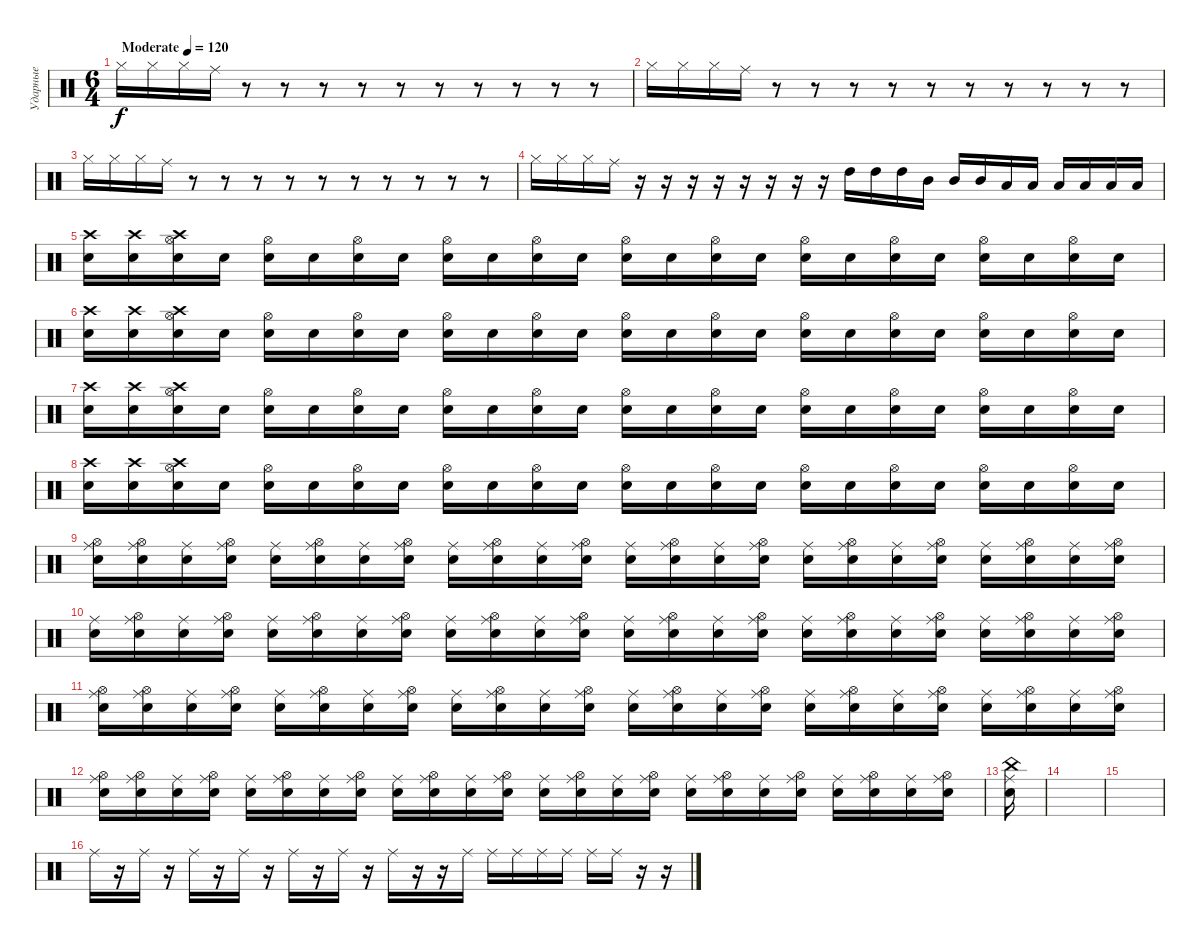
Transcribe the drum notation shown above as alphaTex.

\track ("Ударные" "Ударные") {instrument percussion}
\staff {score}
\articulation defaults
\ts (6 4)
\tempo (120 "Moderate")
\clef neutral
\ks c "Hi-Hat (closed)".16{dy f} "Hi-Hat (closed)".16 "Hi-Hat (closed)".16 "Ride (middle)".16
r.8 r.8 r.8 r.8 r.8 r.8 r.8 r.8 r.8 r.8 |
"Hi-Hat (closed)".16 "Hi-Hat (closed)".16 "Hi-Hat (closed)".16 "Ride (middle)".16 r.8 r.8 r.8 r.8 r.8 r.8 r.8 r.8 r.8 r.8 |
"Hi-Hat (closed)".16 "Hi-Hat (closed)".16 "Hi-Hat (closed)".16 "Ride (middle)".16 r.8 r.8 r.8 r.8 r.8 r.8 r.8 r.8 r.8 r.8 |
"Hi-Hat (closed)".16 "Hi-Hat (closed)".16 "Hi-Hat (closed)".16 "Ride (middle)".16 r.16 r.16 r.16 r.16 r.16 r.16 r.16 r.16 "High Tom (hit)".16 "High Tom (hit)".16 "High Tom (hit)".16 "Mid Tom (hit)".16 "Mid Tom (hit)".16 "Mid Tom (hit)".16 "Low Tom (hit)".16 "Low Tom (hit)".16 "Low Tom (hit)".16 "Low Floor Tom (hit)".16 "Low Floor Tom (hit)".16 "Low Floor Tom (hit)".16 |
("Crash high (hit)" "Snare (hit) 2").16 ("Crash high (hit)" "Snare (hit) 2").16 ("Crash high (hit)" "Snare (hit) 2" "Hi-Hat (open)").16 "Electric Snare (hit)".16 ("Electric Snare (hit)" "Hi-Hat (open)").16 "Electric Snare (hit)".16 ("Electric Snare (hit)" "Hi-Hat (open)").16 "Electric Snare (hit)".16 ("Electric Snare (hit)" "Hi-Hat (open)").16 "Electric Snare (hit)".16 ("Electric Snare (hit)" "Hi-Hat (open)").16 "Electric Snare (hit)".16 ("Electric Snare (hit)" "Hi-Hat (open)").16 "Electric Snare (hit)".16 ("Electric Snare (hit)" "Hi-Hat (open)").16 "Electric Snare (hit)".16 ("Electric Snare (hit)" "Hi-Hat (open)").16 "Electric Snare (hit)".16 ("Electric Snare (hit)" "Hi-Hat (open)").16 "Electric Snare (hit)".16 ("Electric Snare (hit)" "Hi-Hat (open)").16 "Electric Snare (hit)".16 ("Electric Snare (hit)" "Hi-Hat (open)").16 "Electric Snare (hit)".16 |
("Crash high (hit)" "Snare (hit) 2").16 ("Crash high (hit)" "Snare (hit) 2").16 ("Crash high (hit)" "Snare (hit) 2" "Hi-Hat (open)").16 "Electric Snare (hit)".16 ("Electric Snare (hit)" "Hi-Hat (open)").16 "Electric Snare (hit)".16 ("Electric Snare (hit)" "Hi-Hat (open)").16 "Electric Snare (hit)".16 ("Electric Snare (hit)" "Hi-Hat (open)").16 "Electric Snare (hit)".16 ("Electric Snare (hit)" "Hi-Hat (open)").16 "Electric Snare (hit)".16 ("Electric Snare (hit)" "Hi-Hat (open)").16 "Electric Snare (hit)".16 ("Electric Snare (hit)" "Hi-Hat (open)").16 "Electric Snare (hit)".16 ("Electric Snare (hit)" "Hi-Hat (open)").16 "Electric Snare (hit)".16 ("Electric Snare (hit)" "Hi-Hat (open)").16 "Electric Snare (hit)".16 ("Electric Snare (hit)" "Hi-Hat (open)").16 "Electric Snare (hit)".16 ("Electric Snare (hit)" "Hi-Hat (open)").16 "Electric Snare (hit)".16 |
("Crash high (hit)" "Snare (hit) 2").16 ("Crash high (hit)" "Snare (hit) 2").16 ("Crash high (hit)" "Snare (hit) 2" "Hi-Hat (open)").16 "Electric Snare (hit)".16 ("Electric Snare (hit)" "Hi-Hat (open)").16 "Electric Snare (hit)".16 ("Electric Snare (hit)" "Hi-Hat (open)").16 "Electric Snare (hit)".16 ("Electric Snare (hit)" "Hi-Hat (open)").16 "Electric Snare (hit)".16 ("Electric Snare (hit)" "Hi-Hat (open)").16 "Electric Snare (hit)".16 ("Electric Snare (hit)" "Hi-Hat (open)").16 "Electric Snare (hit)".16 ("Electric Snare (hit)" "Hi-Hat (open)").16 "Electric Snare (hit)".16 ("Electric Snare (hit)" "Hi-Hat (open)").16 "Electric Snare (hit)".16 ("Electric Snare (hit)" "Hi-Hat (open)").16 "Electric Snare (hit)".16 ("Electric Snare (hit)" "Hi-Hat (open)").16 "Electric Snare (hit)".16 ("Electric Snare (hit)" "Hi-Hat (open)").16 "Electric Snare (hit)".16 |
("Crash high (hit)" "Snare (hit) 2").16 ("Crash high (hit)" "Snare (hit) 2").16 ("Crash high (hit)" "Snare (hit) 2" "Hi-Hat (open)").16 "Electric Snare (hit)".16 ("Electric Snare (hit)" "Hi-Hat (open)").16 "Electric Snare (hit)".16 ("Electric Snare (hit)" "Hi-Hat (open)").16 "Electric Snare (hit)".16 ("Electric Snare (hit)" "Hi-Hat (open)").16 "Electric Snare (hit)".16 ("Electric Snare (hit)" "Hi-Hat (open)").16 "Electric Snare (hit)".16 ("Electric Snare (hit)" "Hi-Hat (open)").16 "Electric Snare (hit)".16 ("Electric Snare (hit)" "Hi-Hat (open)").16 "Electric Snare (hit)".16 ("Electric Snare (hit)" "Hi-Hat (open)").16 "Electric Snare (hit)".16 ("Electric Snare (hit)" "Hi-Hat (open)").16 "Electric Snare (hit)".16 ("Electric Snare (hit)" "Hi-Hat (open)").16 "Electric Snare (hit)".16 ("Electric Snare (hit)" "Hi-Hat (open)").16 "Electric Snare (hit)".16 |
("Ride (middle)" "Electric Snare (hit)" "Hi-Hat (open)").16 ("Ride (middle)" "Electric Snare (hit)" "Hi-Hat (open)").16 ("Ride (middle)" "Electric Snare (hit)").16 ("Ride (middle)" "Electric Snare (hit)" "Hi-Hat (open)").16 ("Ride (middle)" "Electric Snare (hit)").16 ("Ride (middle)" "Electric Snare (hit)" "Hi-Hat (open)").16 ("Ride (middle)" "Electric Snare (hit)").16 ("Ride (middle)" "Electric Snare (hit)" "Hi-Hat (open)").16 ("Ride (middle)" "Electric Snare (hit)").16 ("Ride (middle)" "Electric Snare (hit)" "Hi-Hat (open)").16 ("Ride (middle)" "Electric Snare (hit)").16 ("Ride (middle)" "Electric Snare (hit)" "Hi-Hat (open)").16 ("Ride (middle)" "Electric Snare (hit)").16 ("Ride (middle)" "Electric Snare (hit)" "Hi-Hat (open)").16 ("Ride (middle)" "Electric Snare (hit)").16 ("Ride (middle)" "Electric Snare (hit)" "Hi-Hat (open)").16 ("Ride (middle)" "Electric Snare (hit)").16 ("Ride (middle)" "Electric Snare (hit)" "Hi-Hat (open)").16 ("Ride (middle)" "Electric Snare (hit)").16 ("Ride (middle)" "Electric Snare (hit)" "Hi-Hat (open)").16 ("Ride (middle)" "Electric Snare (hit)").16 ("Ride (middle)" "Electric Snare (hit)" "Hi-Hat (open)").16 ("Ride (middle)" "Electric Snare (hit)").16 ("Ride (middle)" "Electric Snare (hit)" "Hi-Hat (open)").16 |
("Ride (middle)" "Electric Snare (hit)").16 ("Ride (middle)" "Electric Snare (hit)" "Hi-Hat (open)").16 ("Ride (middle)" "Electric Snare (hit)").16 ("Ride (middle)" "Electric Snare (hit)" "Hi-Hat (open)").16 ("Ride (middle)" "Electric Snare (hit)").16 ("Ride (middle)" "Electric Snare (hit)" "Hi-Hat (open)").16 ("Ride (middle)" "Electric Snare (hit)").16 ("Ride (middle)" "Electric Snare (hit)" "Hi-Hat (open)").16 ("Ride (middle)" "Electric Snare (hit)").16 ("Ride (middle)" "Electric Snare (hit)" "Hi-Hat (open)").16 ("Ride (middle)" "Electric Snare (hit)").16 ("Ride (middle)" "Electric Snare (hit)" "Hi-Hat (open)").16 ("Ride (middle)" "Electric Snare (hit)").16 ("Ride (middle)" "Electric Snare (hit)" "Hi-Hat (open)").16 ("Ride (middle)" "Electric Snare (hit)").16 ("Ride (middle)" "Electric Snare (hit)" "Hi-Hat (open)").16 ("Ride (middle)" "Electric Snare (hit)").16 ("Ride (middle)" "Electric Snare (hit)" "Hi-Hat (open)").16 ("Ride (middle)" "Electric Snare (hit)").16 ("Ride (middle)" "Electric Snare (hit)" "Hi-Hat (open)").16 ("Ride (middle)" "Electric Snare (hit)").16 ("Ride (middle)" "Electric Snare (hit)" "Hi-Hat (open)").16 ("Ride (middle)" "Electric Snare (hit)").16 ("Ride (middle)" "Electric Snare (hit)" "Hi-Hat (open)").16 |
("Ride (middle)" "Electric Snare (hit)" "Hi-Hat (open)").16 ("Ride (middle)" "Electric Snare (hit)" "Hi-Hat (open)").16 ("Ride (middle)" "Electric Snare (hit)").16 ("Ride (middle)" "Electric Snare (hit)" "Hi-Hat (open)").16 ("Ride (middle)" "Electric Snare (hit)").16 ("Ride (middle)" "Electric Snare (hit)" "Hi-Hat (open)").16 ("Ride (middle)" "Electric Snare (hit)").16 ("Ride (middle)" "Electric Snare (hit)" "Hi-Hat (open)").16 ("Ride (middle)" "Electric Snare (hit)").16 ("Ride (middle)" "Electric Snare (hit)" "Hi-Hat (open)").16 ("Ride (middle)" "Electric Snare (hit)").16 ("Ride (middle)" "Electric Snare (hit)" "Hi-Hat (open)").16 ("Ride (middle)" "Electric Snare (hit)").16 ("Ride (middle)" "Electric Snare (hit)" "Hi-Hat (open)").16 ("Ride (middle)" "Electric Snare (hit)").16 ("Ride (middle)" "Electric Snare (hit)" "Hi-Hat (open)").16 ("Ride (middle)" "Electric Snare (hit)").16 ("Ride (middle)" "Electric Snare (hit)" "Hi-Hat (open)").16 ("Ride (middle)" "Electric Snare (hit)").16 ("Ride (middle)" "Electric Snare (hit)" "Hi-Hat (open)").16 ("Ride (middle)" "Electric Snare (hit)").16 ("Ride (middle)" "Electric Snare (hit)" "Hi-Hat (open)").16 ("Ride (middle)" "Electric Snare (hit)").16 ("Ride (middle)" "Electric Snare (hit)" "Hi-Hat (open)").16 |
("Ride (middle)" "Electric Snare (hit)" "Hi-Hat (open)").16 ("Ride (middle)" "Electric Snare (hit)" "Hi-Hat (open)").16 ("Ride (middle)" "Electric Snare (hit)").16 ("Ride (middle)" "Electric Snare (hit)" "Hi-Hat (open)").16 ("Ride (middle)" "Electric Snare (hit)").16 ("Ride (middle)" "Electric Snare (hit)" "Hi-Hat (open)").16 ("Ride (middle)" "Electric Snare (hit)").16 ("Ride (middle)" "Electric Snare (hit)" "Hi-Hat (open)").16 ("Ride (middle)" "Electric Snare (hit)").16 ("Ride (middle)" "Electric Snare (hit)" "Hi-Hat (open)").16 ("Ride (middle)" "Electric Snare (hit)").16 ("Ride (middle)" "Electric Snare (hit)" "Hi-Hat (open)").16 ("Ride (middle)" "Electric Snare (hit)").16 ("Ride (middle)" "Electric Snare (hit)" "Hi-Hat (open)").16 ("Ride (middle)" "Electric Snare (hit)").16 ("Ride (middle)" "Electric Snare (hit)" "Hi-Hat (open)").16 ("Ride (middle)" "Electric Snare (hit)").16 ("Ride (middle)" "Electric Snare (hit)" "Hi-Hat (open)").16 ("Ride (middle)" "Electric Snare (hit)").16 ("Ride (middle)" "Electric Snare (hit)" "Hi-Hat (open)").16 ("Ride (middle)" "Electric Snare (hit)").16 ("Ride (middle)" "Electric Snare (hit)" "Hi-Hat (open)").16 ("Ride (middle)" "Electric Snare (hit)").16 ("Ride (middle)" "Electric Snare (hit)" "Hi-Hat (open)").16 |
("Ride (middle)" "China (hit)" "Electric Snare (hit)").16 |
|
|
"Ride (middle)".16 r.16 "Ride (middle)".16 r.16 "Ride (middle)".16 r.16 "Ride (middle)".16 r.16 "Ride (middle)".16 r.16 "Ride (middle)".16 r.16 "Ride (middle)".16 r.16 r.16 "Ride (middle)".16 "Ride (middle)".16 "Ride (middle)".16 "Ride (middle)".16 "Ride (middle)".16 "Ride (middle)".16 "Ride (middle)".16 r.16 r.16
